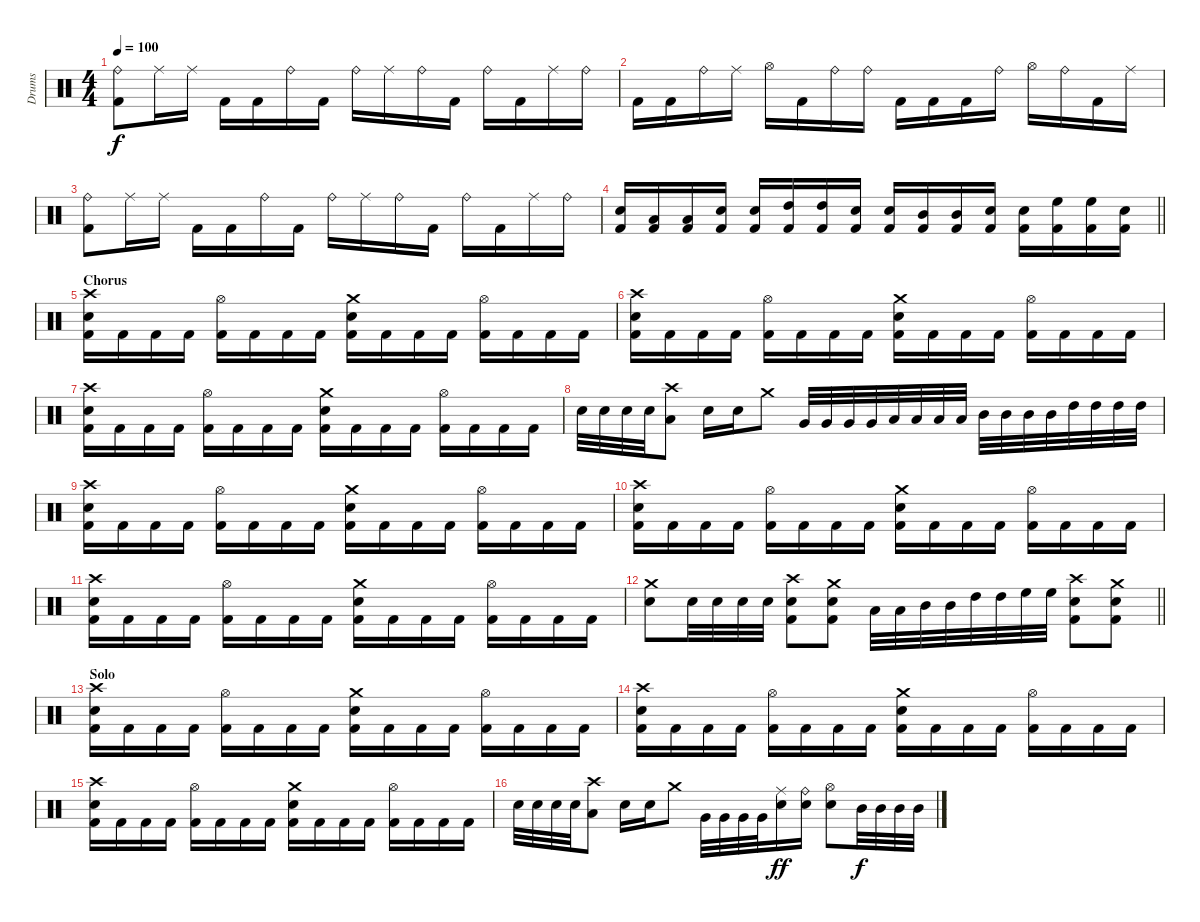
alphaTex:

\track ("Drums" "Drums") {instrument percussion}
\staff {score}
\articulation defaults
\ts (4 4)
\tempo 100
\clef neutral
\ks c
("Ride (bell)" "Kick (hit) 2").8{dy f} "Ride (middle)".16 "Ride (middle)".16 "Kick (hit) 2".16 "Kick (hit) 2".16 "Ride (bell)".16 "Kick (hit) 2".16 "Ride (bell)".16 "Ride (middle)".16 "Ride (bell)".16 "Kick (hit) 2".16 "Ride (bell)".16 "Kick (hit) 2".16 "Ride (middle)".16 "Ride (bell)".16 |
"Kick (hit) 2".16 "Kick (hit) 2".16 "Ride (bell)".16 "Ride (middle)".16 "Hi-Hat (open)".16 "Kick (hit) 2".16 "Ride (bell)".16 "Ride (bell)".16 "Kick (hit) 2".16 "Kick (hit) 2".16 "Kick (hit) 2".16 "Ride (bell)".16 "Hi-Hat (open)".16 "Ride (bell)".16 "Kick (hit) 2".16 "Ride (middle)".16 |
("Ride (bell)" "Kick (hit) 2").8 "Ride (middle)".16 "Ride (middle)".16 "Kick (hit) 2".16 "Kick (hit) 2".16 "Ride (bell)".16 "Kick (hit) 2".16 "Ride (bell)".16 "Ride (middle)".16 "Ride (bell)".16 "Kick (hit) 2".16 "Ride (bell)".16 "Kick (hit) 2".16 "Ride (middle)".16 "Ride (bell)".16 |
\barLineRight lightlight
("Snare (hit) 2" "Kick (hit) 2").16 ("Low Tom (hit)" "Kick (hit) 2").16 ("Low Tom (hit)" "Kick (hit) 2").16 ("Snare (hit) 2" "Kick (hit) 2").16 ("Snare (hit) 2" "Kick (hit) 2").16 ("High Tom (hit)" "Kick (hit) 2").16 ("High Tom (hit)" "Kick (hit) 2").16 ("Snare (hit) 2" "Kick (hit) 2").16 ("Snare (hit) 2" "Kick (hit) 2").16 ("Mid Tom (hit)" "Kick (hit) 2").16 ("Mid Tom (hit)" "Kick (hit) 2").16 ("Snare (hit) 2" "Kick (hit) 2").16 ("Snare (hit) 2" "Kick (hit) 2").16 ("High Floor Tom (hit)" "Kick (hit) 2").16 ("High Floor Tom (hit)" "Kick (hit) 2").16 ("Snare (hit) 2" "Kick (hit) 2").16 |
\section ("" "Chorus")
("Crash high (hit)" "Snare (hit) 2" "Kick (hit) 2").16 "Kick (hit) 2".16 "Kick (hit) 2".16 "Kick (hit) 2".16 ("Hi-Hat (open)" "Kick (hit) 2").16 "Kick (hit) 2".16 "Kick (hit) 2".16 "Kick (hit) 2".16 ("Crash medium (hit)" "Snare (hit) 2" "Kick (hit) 2").16 "Kick (hit) 2".16 "Kick (hit) 2".16 "Kick (hit) 2".16 ("Hi-Hat (open)" "Kick (hit) 2").16 "Kick (hit) 2".16 "Kick (hit) 2".16 "Kick (hit) 2".16 |
("Crash high (hit)" "Snare (hit) 2" "Kick (hit) 2").16 "Kick (hit) 2".16 "Kick (hit) 2".16 "Kick (hit) 2".16 ("Hi-Hat (open)" "Kick (hit) 2").16 "Kick (hit) 2".16 "Kick (hit) 2".16 "Kick (hit) 2".16 ("Crash medium (hit)" "Snare (hit) 2" "Kick (hit) 2").16 "Kick (hit) 2".16 "Kick (hit) 2".16 "Kick (hit) 2".16 ("Hi-Hat (open)" "Kick (hit) 2").16 "Kick (hit) 2".16 "Kick (hit) 2".16 "Kick (hit) 2".16 |
("Crash high (hit)" "Snare (hit) 2" "Kick (hit) 2").16 "Kick (hit) 2".16 "Kick (hit) 2".16 "Kick (hit) 2".16 ("Hi-Hat (open)" "Kick (hit) 2").16 "Kick (hit) 2".16 "Kick (hit) 2".16 "Kick (hit) 2".16 ("Crash medium (hit)" "Snare (hit) 2" "Kick (hit) 2").16 "Kick (hit) 2".16 "Kick (hit) 2".16 "Kick (hit) 2".16 ("Hi-Hat (open)" "Kick (hit) 2").16 "Kick (hit) 2".16 "Kick (hit) 2".16 "Kick (hit) 2".16 |
"Snare (hit) 2".32 "Snare (hit) 2".32 "Snare (hit) 2".32 "Snare (hit) 2".32 ("Crash high (hit)" "Low Tom (hit)").8 "Snare (hit) 2".16 "Snare (hit) 2".16 "Crash medium (hit)".8 "Very Low Tom (hit)".32 "Very Low Tom (hit)".32 "Very Low Tom (hit)".32 "Very Low Tom (hit)".32 "Low Tom (hit)".32 "Low Tom (hit)".32 "Low Tom (hit)".32 "Low Tom (hit)".32 "Mid Tom (hit)".32 "Mid Tom (hit)".32 "Mid Tom (hit)".32 "Mid Tom (hit)".32 "High Tom (hit)".32 "High Tom (hit)".32 "High Tom (hit)".32 "High Tom (hit)".32 |
("Crash high (hit)" "Snare (hit) 2" "Kick (hit) 2").16 "Kick (hit) 2".16 "Kick (hit) 2".16 "Kick (hit) 2".16 ("Hi-Hat (open)" "Kick (hit) 2").16 "Kick (hit) 2".16 "Kick (hit) 2".16 "Kick (hit) 2".16 ("Crash medium (hit)" "Snare (hit) 2" "Kick (hit) 2").16 "Kick (hit) 2".16 "Kick (hit) 2".16 "Kick (hit) 2".16 ("Hi-Hat (open)" "Kick (hit) 2").16 "Kick (hit) 2".16 "Kick (hit) 2".16 "Kick (hit) 2".16 |
("Crash high (hit)" "Snare (hit) 2" "Kick (hit) 2").16 "Kick (hit) 2".16 "Kick (hit) 2".16 "Kick (hit) 2".16 ("Hi-Hat (open)" "Kick (hit) 2").16 "Kick (hit) 2".16 "Kick (hit) 2".16 "Kick (hit) 2".16 ("Crash medium (hit)" "Snare (hit) 2" "Kick (hit) 2").16 "Kick (hit) 2".16 "Kick (hit) 2".16 "Kick (hit) 2".16 ("Hi-Hat (open)" "Kick (hit) 2").16 "Kick (hit) 2".16 "Kick (hit) 2".16 "Kick (hit) 2".16 |
("Crash high (hit)" "Snare (hit) 2" "Kick (hit) 2").16 "Kick (hit) 2".16 "Kick (hit) 2".16 "Kick (hit) 2".16 ("Hi-Hat (open)" "Kick (hit) 2").16 "Kick (hit) 2".16 "Kick (hit) 2".16 "Kick (hit) 2".16 ("Crash medium (hit)" "Snare (hit) 2" "Kick (hit) 2").16 "Kick (hit) 2".16 "Kick (hit) 2".16 "Kick (hit) 2".16 ("Hi-Hat (open)" "Kick (hit) 2").16 "Kick (hit) 2".16 "Kick (hit) 2".16 "Kick (hit) 2".16 |
\barLineRight lightlight
("Crash medium (hit)" "Snare (hit) 2").8 "Snare (hit) 2".32 "Snare (hit) 2".32 "Snare (hit) 2".32 "Snare (hit) 2".32 ("Crash high (hit)" "Snare (hit) 2" "Kick (hit) 2").8 ("Crash medium (hit)" "Snare (hit) 2" "Kick (hit) 2").8 "Low Tom (hit)".32 "Low Tom (hit)".32 "Mid Tom (hit)".32 "Mid Tom (hit)".32 "High Tom (hit)".32 "High Tom (hit)".32 "High Floor Tom (hit)".32 "High Floor Tom (hit)".32 ("Crash high (hit)" "Snare (hit) 2" "Kick (hit) 2").8 ("Crash medium (hit)" "Snare (hit) 2" "Kick (hit) 2").8 |
\section ("" "Solo ")
("Crash high (hit)" "Snare (hit) 2" "Kick (hit) 2").16 "Kick (hit) 2".16 "Kick (hit) 2".16 "Kick (hit) 2".16 ("Hi-Hat (open)" "Kick (hit) 2").16 "Kick (hit) 2".16 "Kick (hit) 2".16 "Kick (hit) 2".16 ("Crash medium (hit)" "Snare (hit) 2" "Kick (hit) 2").16 "Kick (hit) 2".16 "Kick (hit) 2".16 "Kick (hit) 2".16 ("Hi-Hat (open)" "Kick (hit) 2").16 "Kick (hit) 2".16 "Kick (hit) 2".16 "Kick (hit) 2".16 |
("Crash high (hit)" "Snare (hit) 2" "Kick (hit) 2").16 "Kick (hit) 2".16 "Kick (hit) 2".16 "Kick (hit) 2".16 ("Hi-Hat (open)" "Kick (hit) 2").16 "Kick (hit) 2".16 "Kick (hit) 2".16 "Kick (hit) 2".16 ("Crash medium (hit)" "Snare (hit) 2" "Kick (hit) 2").16 "Kick (hit) 2".16 "Kick (hit) 2".16 "Kick (hit) 2".16 ("Hi-Hat (open)" "Kick (hit) 2").16 "Kick (hit) 2".16 "Kick (hit) 2".16 "Kick (hit) 2".16 |
("Crash high (hit)" "Snare (hit) 2" "Kick (hit) 2").16 "Kick (hit) 2".16 "Kick (hit) 2".16 "Kick (hit) 2".16 ("Hi-Hat (open)" "Kick (hit) 2").16 "Kick (hit) 2".16 "Kick (hit) 2".16 "Kick (hit) 2".16 ("Crash medium (hit)" "Snare (hit) 2" "Kick (hit) 2").16 "Kick (hit) 2".16 "Kick (hit) 2".16 "Kick (hit) 2".16 ("Hi-Hat (open)" "Kick (hit) 2").16 "Kick (hit) 2".16 "Kick (hit) 2".16 "Kick (hit) 2".16 |
"Snare (hit) 2".32 "Snare (hit) 2".32 "Snare (hit) 2".32 "Snare (hit) 2".32 ("Crash high (hit)" "Low Tom (hit)").8 "Snare (hit) 2".16 "Snare (hit) 2".16 "Crash medium (hit)".8 "Very Low Tom (hit)".32 "Very Low Tom (hit)".32 "Very Low Tom (hit)".32 "Very Low Tom (hit)".32 ("Ride (middle)" "Snare (hit) 2").16{dy ff} ("Ride (bell)" "Snare (hit) 2").16 ("Hi-Hat (open)" "Snare (hit) 2").8 "Mid Tom (hit)".32{dy f} "Mid Tom (hit)".32 "Mid Tom (hit)".32 "Mid Tom (hit)".32
